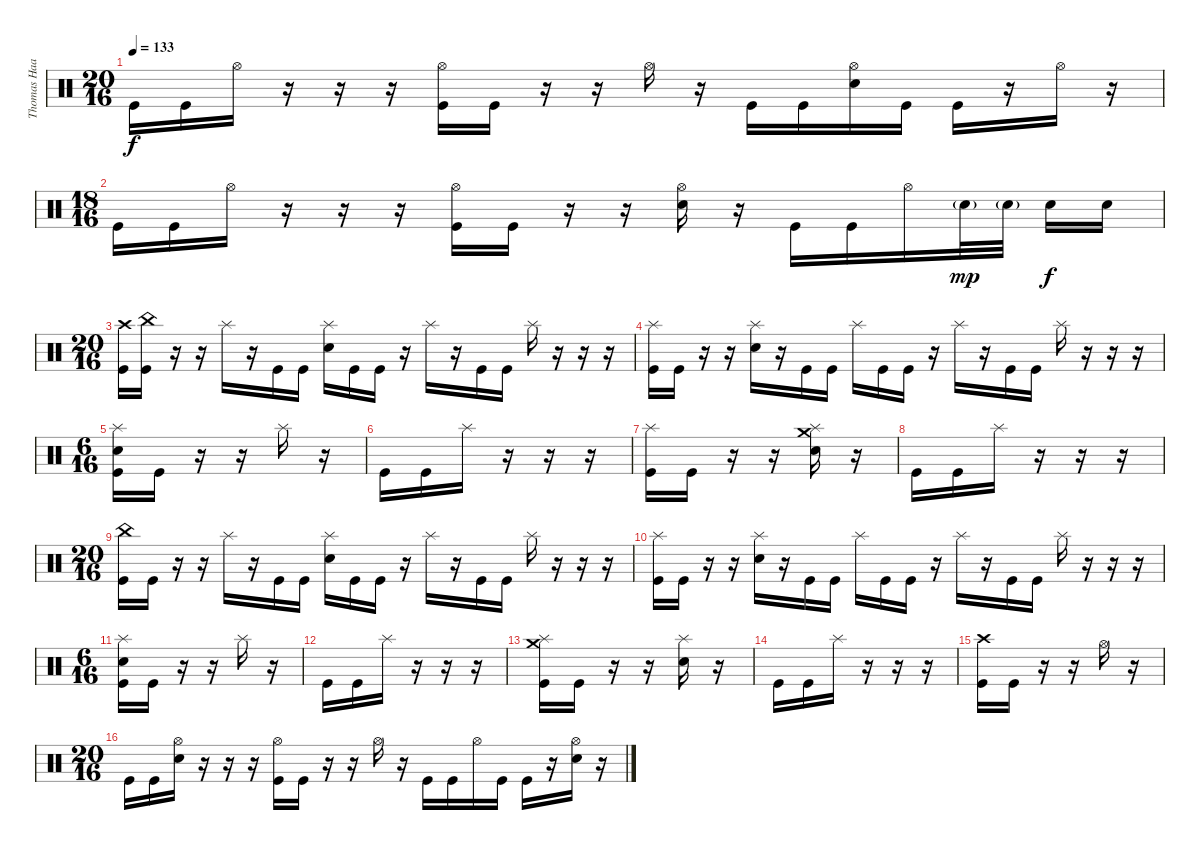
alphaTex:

\track ("Thomas Haake" "Thomas Haa") {instrument percussion}
\staff {score}
\articulation defaults
\ts (20 16)
\tempo 133
\clef neutral
\ks c "Kick (hit)".16{dy f} "Kick (hit)".16 "Hi-Hat (open)".16
r.16 r.16 r.16 ("Hi-Hat (open)" "Kick (hit)").16 "Kick (hit)".16 r.16 r.16 "Hi-Hat (open)".16 r.16 "Kick (hit)".16 "Kick (hit)".16 ("Hi-Hat (open)" "Snare (hit) 2").16 "Kick (hit)".16 "Kick (hit)".16 r.16 "Hi-Hat (open)".16 r.16 |
\ts (18 16)
"Kick (hit)".16 "Kick (hit)".16 "Hi-Hat (open)".16 r.16 r.16 r.16 ("Hi-Hat (open)" "Kick (hit)").16 "Kick (hit)".16 r.16 r.16 ("Hi-Hat (open)" "Snare (hit) 2").16 r.16 "Kick (hit)".16 "Kick (hit)".16 "Hi-Hat (open)".16 "Snare (hit) 2"{g}.32{dy mp} "Snare (hit) 2"{g}.32 "Snare (hit) 2".16{dy f} "Snare (hit) 2".16 |
\ts (20 16)
("Crash high (hit)" "Kick (hit)").16 ("China (hit)" "Kick (hit)").16 r.16 r.16 "Splash (hit)".16 r.16 "Kick (hit)".16 "Kick (hit)".16 ("Splash (hit)" "Snare (hit) 2").16 "Kick (hit)".16 "Kick (hit)".16 r.16 "Splash (hit)".16 r.16 "Kick (hit)".16 "Kick (hit)".16 "Splash (hit)".16 r.16 r.16 r.16 |
("Splash (hit)" "Kick (hit)").16 "Kick (hit)".16 r.16 r.16 ("Splash (hit)" "Snare (hit) 2").16 r.16 "Kick (hit)".16 "Kick (hit)".16 "Splash (hit)".16 "Kick (hit)".16 "Kick (hit)".16 r.16 "Splash (hit)".16 r.16 "Kick (hit)".16 "Kick (hit)".16 "Splash (hit)".16 r.16 r.16 r.16 |
\ts (6 16)
("Splash (hit)" "Snare (hit) 2" "Kick (hit)").16 "Kick (hit)".16 r.16 r.16 "Splash (hit)".16 r.16 |
"Kick (hit)".16 "Kick (hit)".16 "Splash (hit)".16 r.16 r.16 r.16 |
("Splash (hit)" "Kick (hit)").16 "Kick (hit)".16 r.16 r.16 ("Splash (hit)" "Crash medium (hit)" "Snare (hit) 2").16 r.16 |
"Kick (hit)".16 "Kick (hit)".16 "Splash (hit)".16 r.16 r.16 r.16 |
\ts (20 16)
("China (hit)" "Kick (hit)").16 "Kick (hit)".16 r.16 r.16 "Splash (hit)".16 r.16 "Kick (hit)".16 "Kick (hit)".16 ("Splash (hit)" "Snare (hit) 2").16 "Kick (hit)".16 "Kick (hit)".16 r.16 "Splash (hit)".16 r.16 "Kick (hit)".16 "Kick (hit)".16 "Splash (hit)".16 r.16 r.16 r.16 |
("Splash (hit)" "Kick (hit)").16 "Kick (hit)".16 r.16 r.16 ("Splash (hit)" "Snare (hit) 2").16 r.16 "Kick (hit)".16 "Kick (hit)".16 "Splash (hit)".16 "Kick (hit)".16 "Kick (hit)".16 r.16 "Splash (hit)".16 r.16 "Kick (hit)".16 "Kick (hit)".16 "Splash (hit)".16 r.16 r.16 r.16 |
\ts (6 16)
("Splash (hit)" "Snare (hit) 2" "Kick (hit)").16 "Kick (hit)".16 r.16 r.16 "Splash (hit)".16 r.16 |
"Kick (hit)".16 "Kick (hit)".16 "Splash (hit)".16 r.16 r.16 r.16 |
("Splash (hit)" "Crash medium (hit)" "Kick (hit)").16 "Kick (hit)".16 r.16 r.16 ("Splash (hit)" "Snare (hit) 2").16 r.16 |
"Kick (hit)".16 "Kick (hit)".16 "Splash (hit)".16 r.16 r.16 r.16 |
("Crash high (hit)" "Kick (hit)").16 "Kick (hit)".16 r.16 r.16 "Hi-Hat (open)".16 r.16 |
\ts (20 16)
"Kick (hit)".16 "Kick (hit)".16 ("Hi-Hat (open)" "Snare (hit) 2").16 r.16 r.16 r.16 ("Hi-Hat (open)" "Kick (hit)").16 "Kick (hit)".16 r.16 r.16 "Hi-Hat (open)".16 r.16 "Kick (hit)".16 "Kick (hit)".16 "Hi-Hat (open)".16 "Kick (hit)".16 "Kick (hit)".16 r.16 ("Hi-Hat (open)" "Snare (hit) 2").16 r.16
